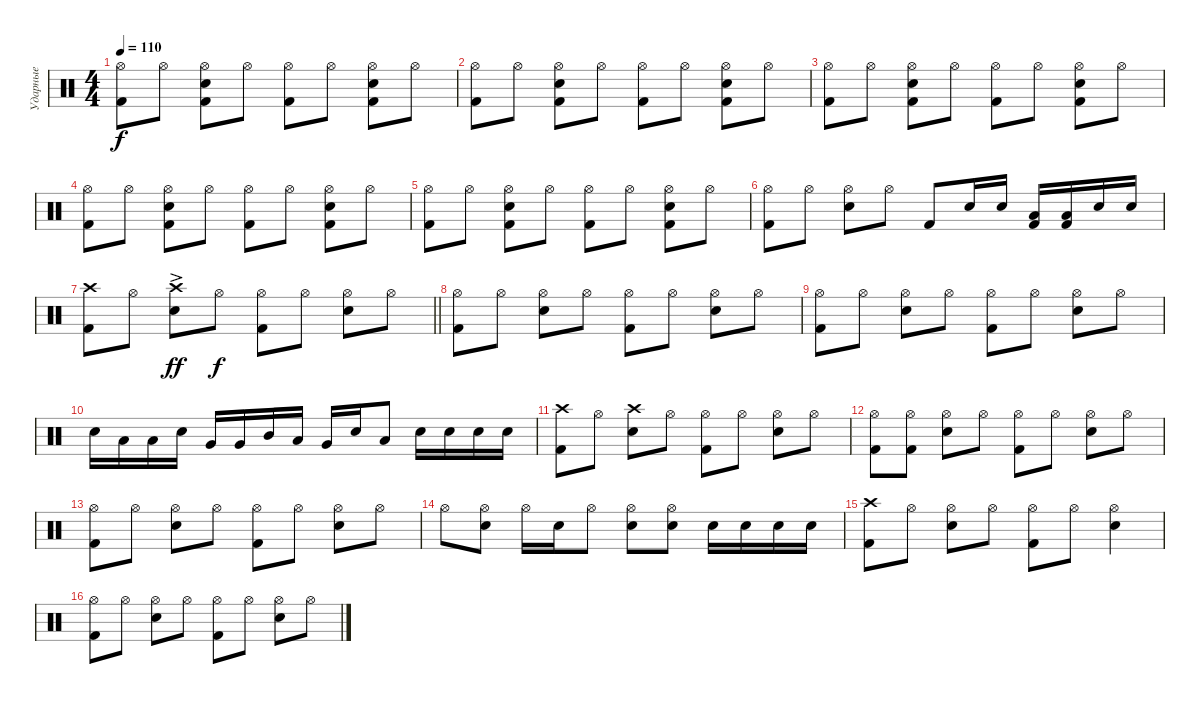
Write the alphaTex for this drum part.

\track ("Ударные" "Ударные") {instrument percussion}
\staff
\articulation defaults
\ts (4 4)
\tempo 110
\clef neutral
\ks c
("Kick (hit) 2" "Hi-Hat (open)").8{dy f} "Hi-Hat (open)".8 ("Kick (hit) 2" "Snare (hit) 2" "Hi-Hat (open)").8 "Hi-Hat (open)".8 ("Kick (hit) 2" "Hi-Hat (open)").8 "Hi-Hat (open)".8 ("Kick (hit) 2" "Snare (hit) 2" "Hi-Hat (open)").8 "Hi-Hat (open)".8 |
("Kick (hit) 2" "Hi-Hat (open)").8 "Hi-Hat (open)".8 ("Kick (hit) 2" "Snare (hit) 2" "Hi-Hat (open)").8 "Hi-Hat (open)".8 ("Kick (hit) 2" "Hi-Hat (open)").8 "Hi-Hat (open)".8 ("Kick (hit) 2" "Snare (hit) 2" "Hi-Hat (open)").8 "Hi-Hat (open)".8 |
("Kick (hit) 2" "Hi-Hat (open)").8 "Hi-Hat (open)".8 ("Kick (hit) 2" "Snare (hit) 2" "Hi-Hat (open)").8 "Hi-Hat (open)".8 ("Kick (hit) 2" "Hi-Hat (open)").8 "Hi-Hat (open)".8 ("Kick (hit) 2" "Snare (hit) 2" "Hi-Hat (open)").8 "Hi-Hat (open)".8 |
("Kick (hit) 2" "Hi-Hat (open)").8 "Hi-Hat (open)".8 ("Kick (hit) 2" "Snare (hit) 2" "Hi-Hat (open)").8 "Hi-Hat (open)".8 ("Kick (hit) 2" "Hi-Hat (open)").8 "Hi-Hat (open)".8 ("Kick (hit) 2" "Snare (hit) 2" "Hi-Hat (open)").8 "Hi-Hat (open)".8 |
("Kick (hit) 2" "Hi-Hat (open)").8 "Hi-Hat (open)".8 ("Kick (hit) 2" "Snare (hit) 2" "Hi-Hat (open)").8 "Hi-Hat (open)".8 ("Kick (hit) 2" "Hi-Hat (open)").8 "Hi-Hat (open)".8 ("Kick (hit) 2" "Snare (hit) 2" "Hi-Hat (open)").8 "Hi-Hat (open)".8 |
("Kick (hit) 2" "Hi-Hat (open)").8 "Hi-Hat (open)".8 ("Snare (hit) 2" "Hi-Hat (open)").8 "Hi-Hat (open)".8 "Kick (hit) 2".8 "Snare (hit) 2".16 "Snare (hit) 2".16 ("Kick (hit) 2" "Low Tom (hit)").16 ("Kick (hit) 2" "Low Tom (hit)").16 "Snare (hit) 2".16 "Snare (hit) 2".16 |
\barLineRight lightlight
("Kick (hit) 2" "Crash high (hit)").8 "Hi-Hat (open)".8 ("Snare (hit) 2" "Crash high (hit)"{ac}).8{dy ff} "Hi-Hat (open)".8{dy f} ("Kick (hit) 2" "Hi-Hat (open)").8 "Hi-Hat (open)".8 ("Snare (hit) 2" "Hi-Hat (open)").8 "Hi-Hat (open)".8 |
("Kick (hit) 2" "Hi-Hat (open)").8 "Hi-Hat (open)".8 ("Snare (hit) 2" "Hi-Hat (open)").8 "Hi-Hat (open)".8 ("Kick (hit) 2" "Hi-Hat (open)").8 "Hi-Hat (open)".8 ("Snare (hit) 2" "Hi-Hat (open)").8 "Hi-Hat (open)".8 |
("Kick (hit) 2" "Hi-Hat (open)").8 "Hi-Hat (open)".8 ("Snare (hit) 2" "Hi-Hat (open)").8 "Hi-Hat (open)".8 ("Kick (hit) 2" "Hi-Hat (open)").8 "Hi-Hat (open)".8 ("Snare (hit) 2" "Hi-Hat (open)").8 "Hi-Hat (open)".8 |
"Snare (hit) 2".16 "Low Tom (hit)".16 "Low Tom (hit)".16 "Snare (hit) 2".16 "Very Low Tom (hit)".16 "Very Low Tom (hit)".16 "Mid Tom (hit)".16 "Low Tom (hit)".16 "Very Low Tom (hit)".16 "Snare (hit) 2".16 "Low Tom (hit)".8 "Snare (hit) 2".16 "Snare (hit) 2".16 "Snare (hit) 2".16 "Snare (hit) 2".16 |
("Kick (hit) 2" "Crash high (hit)").8 "Hi-Hat (open)".8 ("Snare (hit) 2" "Crash high (hit)").8 "Hi-Hat (open)".8 ("Kick (hit) 2" "Hi-Hat (open)").8 "Hi-Hat (open)".8 ("Snare (hit) 2" "Hi-Hat (open)").8 "Hi-Hat (open)".8 |
("Kick (hit) 2" "Hi-Hat (open)").8 ("Kick (hit) 2" "Hi-Hat (open)").8 ("Snare (hit) 2" "Hi-Hat (open)").8 "Hi-Hat (open)".8 ("Kick (hit) 2" "Hi-Hat (open)").8 "Hi-Hat (open)".8 ("Snare (hit) 2" "Hi-Hat (open)").8 "Hi-Hat (open)".8 |
("Kick (hit) 2" "Hi-Hat (open)").8 "Hi-Hat (open)".8 ("Snare (hit) 2" "Hi-Hat (open)").8 "Hi-Hat (open)".8 ("Kick (hit) 2" "Hi-Hat (open)").8 "Hi-Hat (open)".8 ("Snare (hit) 2" "Hi-Hat (open)").8 "Hi-Hat (open)".8 |
"Hi-Hat (open)".8 ("Hi-Hat (open)" "Snare (hit) 2").8 "Hi-Hat (open)".16 "Snare (hit) 2".16 "Hi-Hat (open)".8 ("Hi-Hat (open)" "Snare (hit) 2").8 ("Hi-Hat (open)" "Snare (hit) 2").8 "Snare (hit) 2".16 "Snare (hit) 2".16 "Snare (hit) 2".16 "Snare (hit) 2".16 |
("Kick (hit) 2" "Crash high (hit)").8 "Hi-Hat (open)".8 ("Snare (hit) 2" "Hi-Hat (open)").8 "Hi-Hat (open)".8 ("Kick (hit) 2" "Hi-Hat (open)").8 "Hi-Hat (open)".8 ("Snare (hit) 2" "Hi-Hat (open)").4 |
("Kick (hit) 2" "Hi-Hat (open)").8 "Hi-Hat (open)".8 ("Snare (hit) 2" "Hi-Hat (open)").8 "Hi-Hat (open)".8 ("Kick (hit) 2" "Hi-Hat (open)").8 "Hi-Hat (open)".8 ("Snare (hit) 2" "Hi-Hat (open)").8 "Hi-Hat (open)".8
